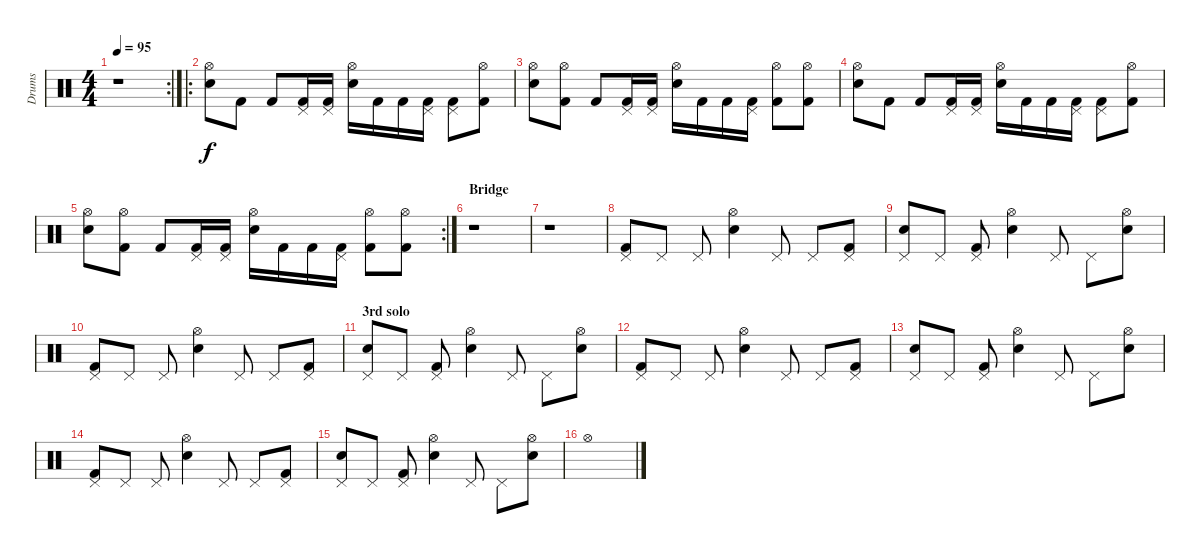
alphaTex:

\track ("Drums" "Drums") {instrument percussion}
\staff {score}
\articulation defaults
\rc 2
\ts (4 4)
\tempo 95
\clef neutral
\ks c
r.1{dy f} |
\ro
("Hi-Hat (open)" "Snare (hit) 2").8 "Kick (hit) 2".8 "Kick (hit) 2".8 ("Pedal Hi-Hat (hit)" "Kick (hit) 2").16 ("Pedal Hi-Hat (hit)" "Kick (hit) 2").16 ("Hi-Hat (open)" "Snare (hit) 2").16 "Kick (hit) 2".16 "Kick (hit) 2".16 ("Pedal Hi-Hat (hit)" "Kick (hit) 2").16 ("Pedal Hi-Hat (hit)" "Kick (hit) 2").8 ("Hi-Hat (open)" "Kick (hit) 2").8 |
("Hi-Hat (open)" "Snare (hit) 2").8 ("Hi-Hat (open)" "Kick (hit) 2").8 "Kick (hit) 2".8 ("Pedal Hi-Hat (hit)" "Kick (hit) 2").16 ("Pedal Hi-Hat (hit)" "Kick (hit) 2").16 ("Hi-Hat (open)" "Snare (hit) 2").16 "Kick (hit) 2".16 "Kick (hit) 2".16 ("Pedal Hi-Hat (hit)" "Kick (hit) 2").16 ("Hi-Hat (open)" "Kick (hit) 2").8 ("Hi-Hat (open)" "Kick (hit) 2").8 |
("Hi-Hat (open)" "Snare (hit) 2").8 "Kick (hit) 2".8 "Kick (hit) 2".8 ("Pedal Hi-Hat (hit)" "Kick (hit) 2").16 ("Pedal Hi-Hat (hit)" "Kick (hit) 2").16 ("Hi-Hat (open)" "Snare (hit) 2").16 "Kick (hit) 2".16 "Kick (hit) 2".16 ("Pedal Hi-Hat (hit)" "Kick (hit) 2").16 ("Pedal Hi-Hat (hit)" "Kick (hit) 2").8 ("Hi-Hat (open)" "Kick (hit) 2").8 |
\rc 2
("Hi-Hat (open)" "Snare (hit) 2").8 ("Hi-Hat (open)" "Kick (hit) 2").8 "Kick (hit) 2".8 ("Pedal Hi-Hat (hit)" "Kick (hit) 2").16 ("Pedal Hi-Hat (hit)" "Kick (hit) 2").16 ("Hi-Hat (open)" "Snare (hit) 2").16 "Kick (hit) 2".16 "Kick (hit) 2".16 ("Pedal Hi-Hat (hit)" "Kick (hit) 2").16 ("Hi-Hat (open)" "Kick (hit) 2").8 ("Hi-Hat (open)" "Kick (hit) 2").8 |
\section ("" "Bridge")
r.1 |
r.1 |
("Pedal Hi-Hat (hit)" "Kick (hit) 2").8 "Pedal Hi-Hat (hit)".8 "Pedal Hi-Hat (hit)".8 ("Hi-Hat (open)" "Snare (hit) 2").4 "Pedal Hi-Hat (hit)".8 "Pedal Hi-Hat (hit)".8 ("Pedal Hi-Hat (hit)" "Kick (hit) 2").8 |
("Pedal Hi-Hat (hit)" "Snare (hit) 2").8 "Pedal Hi-Hat (hit)".8 ("Pedal Hi-Hat (hit)" "Kick (hit) 2").8 ("Hi-Hat (open)" "Snare (hit) 2").4 "Pedal Hi-Hat (hit)".8 "Pedal Hi-Hat (hit)".8 ("Hi-Hat (open)" "Snare (hit) 2").8 |
("Pedal Hi-Hat (hit)" "Kick (hit) 2").8 "Pedal Hi-Hat (hit)".8 "Pedal Hi-Hat (hit)".8 ("Hi-Hat (open)" "Snare (hit) 2").4 "Pedal Hi-Hat (hit)".8 "Pedal Hi-Hat (hit)".8 ("Pedal Hi-Hat (hit)" "Kick (hit) 2").8 |
\section ("" "3rd solo")
("Pedal Hi-Hat (hit)" "Snare (hit) 2").8 "Pedal Hi-Hat (hit)".8 ("Pedal Hi-Hat (hit)" "Kick (hit) 2").8 ("Hi-Hat (open)" "Snare (hit) 2").4 "Pedal Hi-Hat (hit)".8 "Pedal Hi-Hat (hit)".8 ("Hi-Hat (open)" "Snare (hit) 2").8 |
("Pedal Hi-Hat (hit)" "Kick (hit) 2").8 "Pedal Hi-Hat (hit)".8 "Pedal Hi-Hat (hit)".8 ("Hi-Hat (open)" "Snare (hit) 2").4 "Pedal Hi-Hat (hit)".8 "Pedal Hi-Hat (hit)".8 ("Pedal Hi-Hat (hit)" "Kick (hit) 2").8 |
("Pedal Hi-Hat (hit)" "Snare (hit) 2").8 "Pedal Hi-Hat (hit)".8 ("Pedal Hi-Hat (hit)" "Kick (hit) 2").8 ("Hi-Hat (open)" "Snare (hit) 2").4 "Pedal Hi-Hat (hit)".8 "Pedal Hi-Hat (hit)".8 ("Hi-Hat (open)" "Snare (hit) 2").8 |
("Pedal Hi-Hat (hit)" "Kick (hit) 2").8 "Pedal Hi-Hat (hit)".8 "Pedal Hi-Hat (hit)".8 ("Hi-Hat (open)" "Snare (hit) 2").4 "Pedal Hi-Hat (hit)".8 "Pedal Hi-Hat (hit)".8 ("Pedal Hi-Hat (hit)" "Kick (hit) 2").8 |
("Pedal Hi-Hat (hit)" "Snare (hit) 2").8 "Pedal Hi-Hat (hit)".8 ("Pedal Hi-Hat (hit)" "Kick (hit) 2").8 ("Hi-Hat (open)" "Snare (hit) 2").4 "Pedal Hi-Hat (hit)".8 "Pedal Hi-Hat (hit)".8 ("Hi-Hat (open)" "Snare (hit) 2").8 |
"Hi-Hat (open)".1
